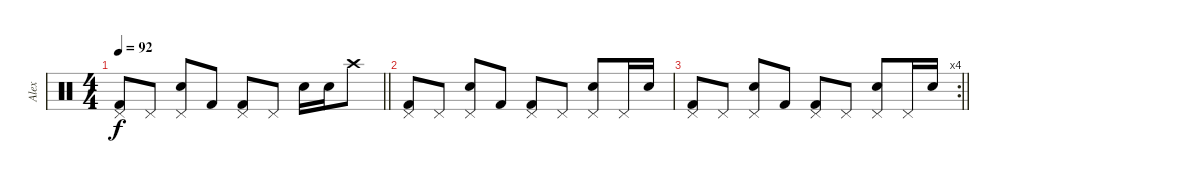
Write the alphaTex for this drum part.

\track ("Alex" "Alex") {instrument percussion}
\staff {score}
\articulation defaults
\ts (4 4)
\tempo 92
\clef neutral
\barLineRight lightlight
\ks c
("Pedal Hi-Hat (hit)" "Kick (hit) 2").8{dy f} "Pedal Hi-Hat (hit)".8 ("Pedal Hi-Hat (hit)" "Snare (hit) 2").8 "Kick (hit) 2".8 ("Pedal Hi-Hat (hit)" "Kick (hit) 2").8 "Pedal Hi-Hat (hit)".8 "Snare (hit) 2".16 "Snare (hit) 2".16 "Crash high (hit)".8 |
("Pedal Hi-Hat (hit)" "Kick (hit) 2").8 "Pedal Hi-Hat (hit)".8 ("Pedal Hi-Hat (hit)" "Snare (hit) 2").8 "Kick (hit) 2".8 ("Pedal Hi-Hat (hit)" "Kick (hit) 2").8 "Pedal Hi-Hat (hit)".8 ("Pedal Hi-Hat (hit)" "Snare (hit) 2").8 "Pedal Hi-Hat (hit)".16 "Snare (hit) 2".16 |
\rc 4
\barLineRight lightlight
("Pedal Hi-Hat (hit)" "Kick (hit) 2").8 "Pedal Hi-Hat (hit)".8 ("Pedal Hi-Hat (hit)" "Snare (hit) 2").8 "Kick (hit) 2".8 ("Pedal Hi-Hat (hit)" "Kick (hit) 2").8 "Pedal Hi-Hat (hit)".8 ("Pedal Hi-Hat (hit)" "Snare (hit) 2").8 "Pedal Hi-Hat (hit)".16 "Snare (hit) 2".16
